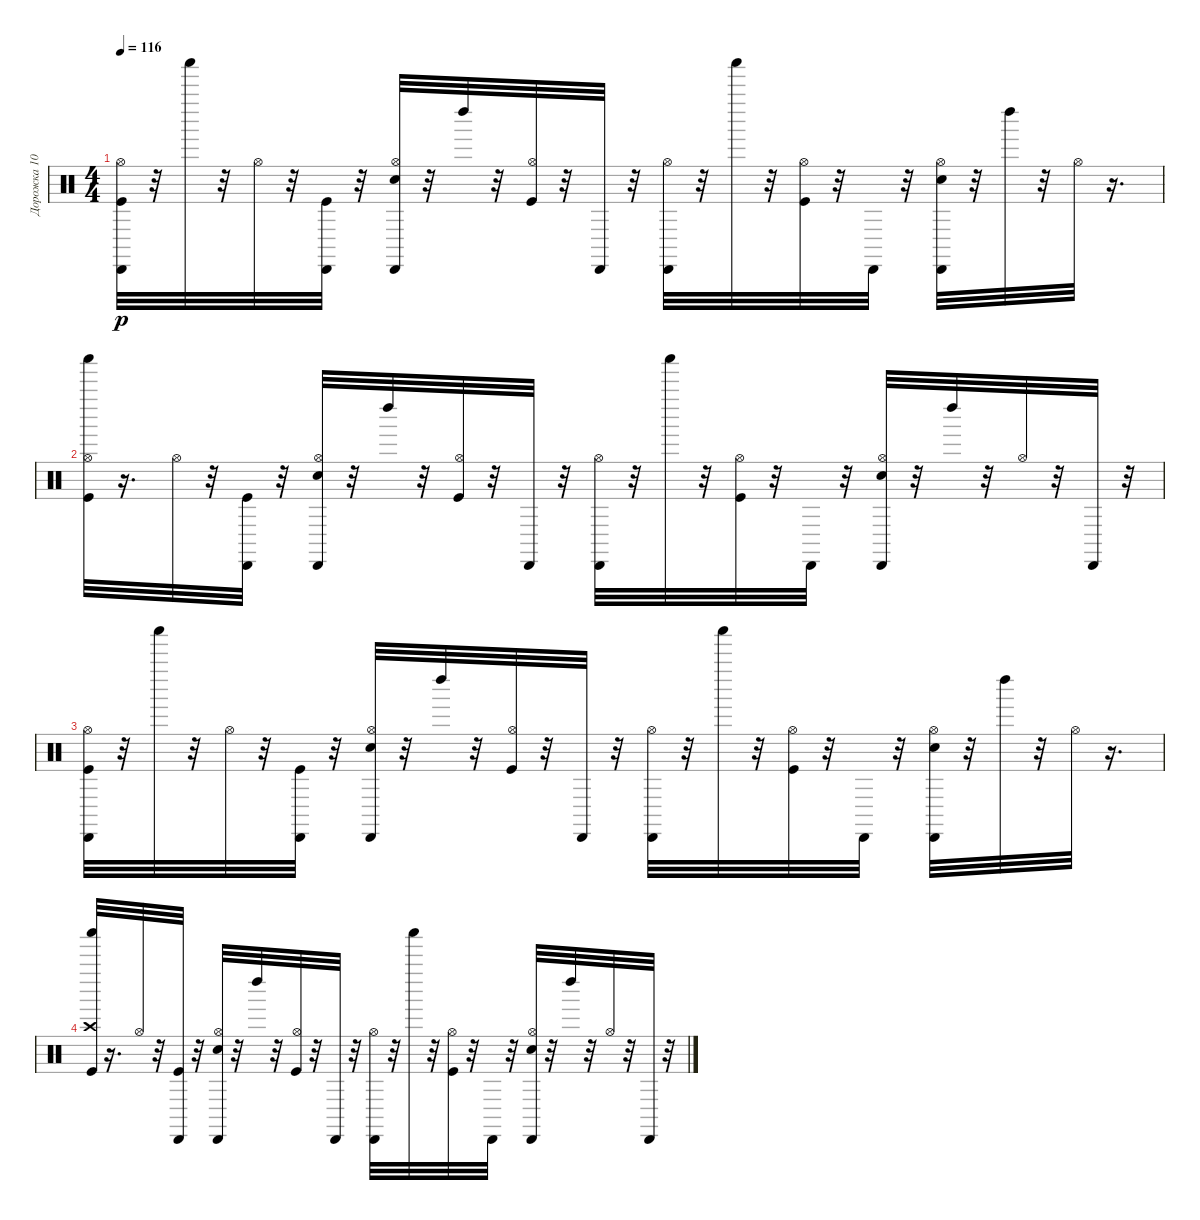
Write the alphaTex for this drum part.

\track ("Дорожка 10" "Дорожка 10") {instrument percussion}
\staff {score}
\articulation defaults
\ts (4 4)
\tempo 116
\clef neutral
\ks c
("Kick (hit)" "Hi-Hat (open)" "Cabasa (hit)").32{dy p} r.32 "Shaker (hit)".32 r.32 "Hi-Hat (open)".32 r.32 ("Kick (hit)" "Cabasa (hit)").32 r.32 ("Electric Snare (hit)" "Hi-Hat (open)" "Cabasa (hit)").32 r.32 "Left Maraca (hit)".32 r.32 ("Kick (hit)" "Hi-Hat (open)").32 r.32 "Cabasa (hit)".32 r.32 ("Hi-Hat (open)" "Cabasa (hit)").32 r.32 "Shaker (hit)".32 r.32 ("Hi-Hat (open)" "Kick (hit)").32 r.32 "Cabasa (hit)".32 r.32 ("Electric Snare (hit)" "Hi-Hat (open)" "Cabasa (hit)").32 r.32 "Left Maraca (hit)".32 r.32 "Hi-Hat (open)".32 r.16{d} |
("Kick (hit)" "Hi-Hat (open)" "Shaker (hit)").32 r.16{d} "Hi-Hat (open)".32 r.32 ("Kick (hit)" "Cabasa (hit)").32 r.32 ("Electric Snare (hit)" "Hi-Hat (open)" "Cabasa (hit)").32 r.32 "Left Maraca (hit)".32 r.32 ("Kick (hit)" "Hi-Hat (open)").32 r.32 "Cabasa (hit)".32 r.32 ("Hi-Hat (open)" "Cabasa (hit)").32 r.32 "Shaker (hit)".32 r.32 ("Kick (hit)" "Hi-Hat (open)").32 r.32 "Cabasa (hit)".32 r.32 ("Electric Snare (hit)" "Hi-Hat (open)" "Cabasa (hit)").32 r.32 "Left Maraca (hit)".32 r.32 "Hi-Hat (open)".32 r.32 "Cabasa (hit)".32 r.32 |
("Kick (hit)" "Hi-Hat (open)" "Cabasa (hit)").32 r.32 "Shaker (hit)".32 r.32 "Hi-Hat (open)".32 r.32 ("Kick (hit)" "Cabasa (hit)").32 r.32 ("Electric Snare (hit)" "Hi-Hat (open)" "Cabasa (hit)").32 r.32 "Left Maraca (hit)".32 r.32 ("Kick (hit)" "Hi-Hat (open)").32 r.32 "Cabasa (hit)".32 r.32 ("Hi-Hat (open)" "Cabasa (hit)").32 r.32 "Shaker (hit)".32 r.32 ("Hi-Hat (open)" "Kick (hit)").32 r.32 "Cabasa (hit)".32 r.32 ("Electric Snare (hit)" "Hi-Hat (open)" "Cabasa (hit)").32 r.32 "Left Maraca (hit)".32 r.32 "Hi-Hat (open)".32 r.16{d} |
("Kick (hit)" "Crash high (hit)" "Shaker (hit)").32 r.16{d} "Hi-Hat (open)".32 r.32 ("Kick (hit)" "Cabasa (hit)").32 r.32 ("Electric Snare (hit)" "Hi-Hat (open)" "Cabasa (hit)").32 r.32 "Left Maraca (hit)".32 r.32 ("Kick (hit)" "Hi-Hat (open)").32 r.32 "Cabasa (hit)".32 r.32 ("Hi-Hat (open)" "Cabasa (hit)").32 r.32 "Shaker (hit)".32 r.32 ("Kick (hit)" "Hi-Hat (open)").32 r.32 "Cabasa (hit)".32 r.32 ("Electric Snare (hit)" "Hi-Hat (open)" "Cabasa (hit)").32 r.32 "Left Maraca (hit)".32 r.32 "Hi-Hat (open)".32 r.32 "Cabasa (hit)".32 r.32
